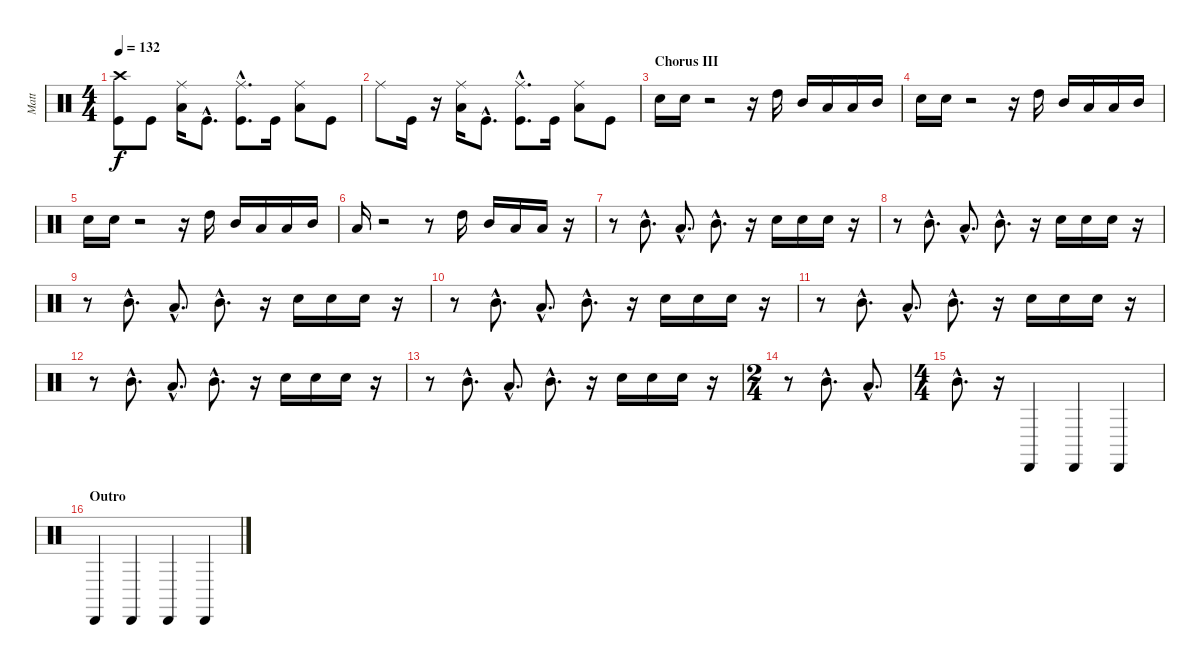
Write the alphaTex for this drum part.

\track ("Matt" "Matt") {instrument percussion}
\staff {score}
\articulation defaults
\ts (4 4)
\tempo 132
\clef neutral
\ks c
("Crash high (hit)" "Kick (hit)").8{dy f} "Kick (hit)".8 ("Ride (middle)" "Low Tom (hit)").16 "Kick (hit)"{hac}.8{d} ("Kick (hit)"{hac} "Ride (middle)").8{d} "Kick (hit)".16 ("Low Tom (hit)" "Ride (middle)").8 "Kick (hit)".8 |
"Ride (middle)".8 "Kick (hit)".16 r.16 ("Ride (middle)" "Low Tom (hit)").16 "Kick (hit)"{hac}.8{d} ("Kick (hit)"{hac} "Ride (middle)").8{d} "Kick (hit)".16 ("Ride (middle)" "Low Tom (hit)").8 "Kick (hit)".8 |
\section ("" "Chorus III")
"Electric Snare (hit)".16 "Electric Snare (hit)".16 r.2 r.16 "High Tom (hit)".16 "Mid Tom (hit)".16 "Low Tom (hit)".16 "Low Tom (hit)".16 "Mid Tom (hit)".16 |
"Electric Snare (hit)".16 "Electric Snare (hit)".16 r.2 r.16 "High Tom (hit)".16 "Mid Tom (hit)".16 "Low Tom (hit)".16 "Low Tom (hit)".16 "Mid Tom (hit)".16 |
"Electric Snare (hit)".16 "Electric Snare (hit)".16 r.2 r.16 "High Tom (hit)".16 "Mid Tom (hit)".16 "Low Tom (hit)".16 "Low Tom (hit)".16 "Mid Tom (hit)".16 |
"Low Tom (hit)".16 r.2 r.8 "High Tom (hit)".16 "Mid Tom (hit)".16 "Low Tom (hit)".16 "Low Tom (hit)".16 r.16 |
r.8 "Mid Tom (hit)"{hac}.8{d} "Low Tom (hit)"{hac}.8{d} "Mid Tom (hit)"{hac}.8{d} r.16 "Electric Snare (hit)".16 "Electric Snare (hit)".16 "Electric Snare (hit)".16 r.16 |
r.8 "Mid Tom (hit)"{hac}.8{d} "Low Tom (hit)"{hac}.8{d} "Mid Tom (hit)"{hac}.8{d} r.16 "Electric Snare (hit)".16 "Electric Snare (hit)".16 "Electric Snare (hit)".16 r.16 |
r.8 "Mid Tom (hit)"{hac}.8{d} "Low Tom (hit)"{hac}.8{d} "Mid Tom (hit)"{hac}.8{d} r.16 "Electric Snare (hit)".16 "Electric Snare (hit)".16 "Electric Snare (hit)".16 r.16 |
r.8 "Mid Tom (hit)"{hac}.8{d} "Low Tom (hit)"{hac}.8{d} "Mid Tom (hit)"{hac}.8{d} r.16 "Electric Snare (hit)".16 "Electric Snare (hit)".16 "Electric Snare (hit)".16 r.16 |
r.8 "Mid Tom (hit)"{hac}.8{d} "Low Tom (hit)"{hac}.8{d} "Mid Tom (hit)"{hac}.8{d} r.16 "Electric Snare (hit)".16 "Electric Snare (hit)".16 "Electric Snare (hit)".16 r.16 |
r.8 "Mid Tom (hit)"{hac}.8{d} "Low Tom (hit)"{hac}.8{d} "Mid Tom (hit)"{hac}.8{d} r.16 "Electric Snare (hit)".16 "Electric Snare (hit)".16 "Electric Snare (hit)".16 r.16 |
r.8 "Mid Tom (hit)"{hac}.8{d} "Low Tom (hit)"{hac}.8{d} "Mid Tom (hit)"{hac}.8{d} r.16 "Electric Snare (hit)".16 "Electric Snare (hit)".16 "Electric Snare (hit)".16 r.16 |
\ts (2 4)
r.8 "Mid Tom (hit)"{hac}.8{d} "Low Tom (hit)"{hac}.8{d} |
\ts (4 4)
"Mid Tom (hit)"{hac}.8{d} r.16 "Cabasa (hit)".4 "Cabasa (hit)".4 "Cabasa (hit)".4 |
\section ("" "Outro")
"Cabasa (hit)".4 "Cabasa (hit)".4 "Cabasa (hit)".4 "Cabasa (hit)".4
